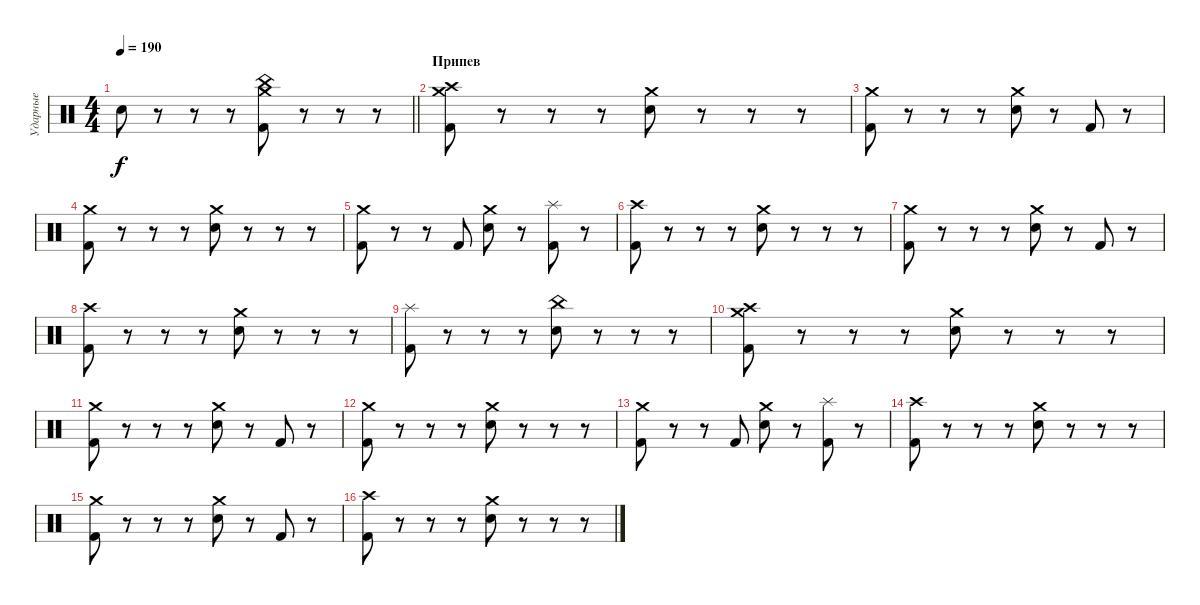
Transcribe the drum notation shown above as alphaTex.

\track ("Ударные" "Ударные") {instrument percussion}
\staff {score}
\articulation defaults
\ts (4 4)
\tempo 190
\clef neutral
\barLineRight lightlight
\ks c "Electric Snare (hit)".8{dy f}
r.8 r.8 r.8 ("Kick (hit) 2" "Crash medium (hit)" "China (hit)").8 r.8 r.8 r.8 |
\section ("" "Припев")
("Kick (hit) 2" "Crash high (hit)" "Crash medium (hit)").8 r.8 r.8 r.8 ("Electric Snare (hit)" "Crash medium (hit)").8 r.8 r.8 r.8 |
("Kick (hit) 2" "Crash medium (hit)").8 r.8 r.8 r.8 ("Electric Snare (hit)" "Crash medium (hit)").8 r.8 "Kick (hit) 2".8 r.8 |
("Kick (hit) 2" "Crash medium (hit)").8 r.8 r.8 r.8 ("Electric Snare (hit)" "Crash medium (hit)").8 r.8 r.8 r.8 |
("Kick (hit) 2" "Crash medium (hit)").8 r.8 r.8 "Kick (hit) 2".8 ("Electric Snare (hit)" "Crash medium (hit)").8 r.8 ("Kick (hit) 2" "Splash (hit)").8 r.8 |
("Kick (hit) 2" "Crash high (hit)").8 r.8 r.8 r.8 ("Electric Snare (hit)" "Crash medium (hit)").8 r.8 r.8 r.8 |
("Kick (hit) 2" "Crash medium (hit)").8 r.8 r.8 r.8 ("Electric Snare (hit)" "Crash medium (hit)").8 r.8 "Kick (hit) 2".8 r.8 |
("Kick (hit) 2" "Crash high (hit)").8 r.8 r.8 r.8 ("Electric Snare (hit)" "Crash medium (hit)").8 r.8 r.8 r.8 |
("Kick (hit) 2" "Splash (hit)").8 r.8 r.8 r.8 ("Electric Snare (hit)" "China (hit)").8 r.8 r.8 r.8 |
("Kick (hit) 2" "Crash high (hit)" "Crash medium (hit)").8 r.8 r.8 r.8 ("Electric Snare (hit)" "Crash medium (hit)").8 r.8 r.8 r.8 |
("Kick (hit) 2" "Crash medium (hit)").8 r.8 r.8 r.8 ("Electric Snare (hit)" "Crash medium (hit)").8 r.8 "Kick (hit) 2".8 r.8 |
("Kick (hit) 2" "Crash medium (hit)").8 r.8 r.8 r.8 ("Electric Snare (hit)" "Crash medium (hit)").8 r.8 r.8 r.8 |
("Kick (hit) 2" "Crash medium (hit)").8 r.8 r.8 "Kick (hit) 2".8 ("Electric Snare (hit)" "Crash medium (hit)").8 r.8 ("Kick (hit) 2" "Splash (hit)").8 r.8 |
("Kick (hit) 2" "Crash high (hit)").8 r.8 r.8 r.8 ("Electric Snare (hit)" "Crash medium (hit)").8 r.8 r.8 r.8 |
("Kick (hit) 2" "Crash medium (hit)").8 r.8 r.8 r.8 ("Electric Snare (hit)" "Crash medium (hit)").8 r.8 "Kick (hit) 2".8 r.8 |
("Kick (hit) 2" "Crash high (hit)").8 r.8 r.8 r.8 ("Electric Snare (hit)" "Crash medium (hit)").8 r.8 r.8 r.8
